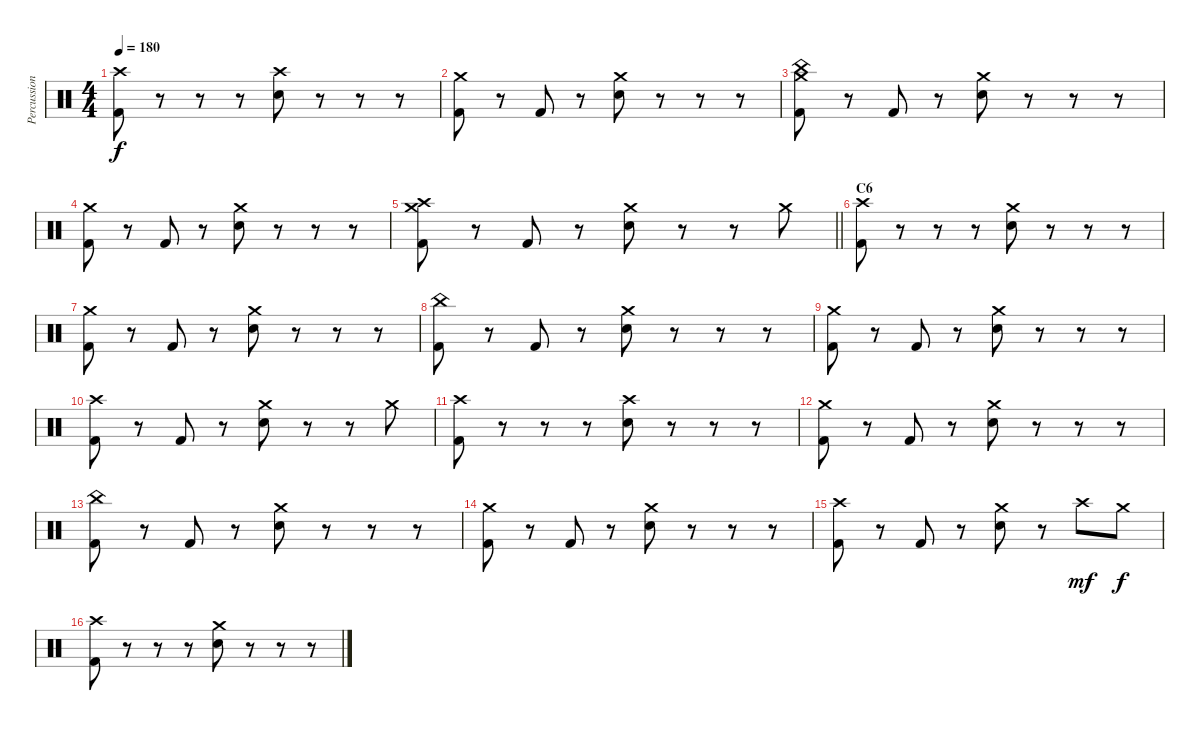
\track ("Percussion" "Percussion") {instrument percussion}
\staff {score}
\articulation defaults
\ts (4 4)
\tempo 180
\clef neutral
\ks c
("Crash high (hit)" "Kick (hit) 2").8{dy f} r.8 r.8 r.8 ("Crash high (hit)" "Snare (hit) 2").8 r.8 r.8 r.8 |
("Crash medium (hit)" "Kick (hit) 2").8 r.8 "Kick (hit) 2".8 r.8 ("Crash medium (hit)" "Snare (hit) 2").8 r.8 r.8 r.8 |
("Crash medium (hit)" "China (hit)" "Kick (hit) 2").8 r.8 "Kick (hit) 2".8 r.8 ("Crash medium (hit)" "Snare (hit) 2").8 r.8 r.8 r.8 |
("Crash medium (hit)" "Kick (hit) 2").8 r.8 "Kick (hit) 2".8 r.8 ("Crash medium (hit)" "Snare (hit) 2").8 r.8 r.8 r.8 |
\barLineRight lightlight
("Crash medium (hit)" "Crash high (hit)" "Kick (hit) 2").8 r.8 "Kick (hit) 2".8 r.8 ("Crash medium (hit)" "Snare (hit) 2").8 r.8 r.8 "Crash medium (hit)".8 |
\section ("" "C6")
("Crash high (hit)" "Kick (hit) 2").8 r.8 r.8 r.8 ("Crash medium (hit)" "Snare (hit) 2").8 r.8 r.8 r.8 |
("Crash medium (hit)" "Kick (hit) 2").8 r.8 "Kick (hit) 2".8 r.8 ("Crash medium (hit)" "Snare (hit) 2").8 r.8 r.8 r.8 |
("China (hit)" "Kick (hit) 2").8 r.8 "Kick (hit) 2".8 r.8 ("Crash medium (hit)" "Snare (hit) 2").8 r.8 r.8 r.8 |
("Crash medium (hit)" "Kick (hit) 2").8 r.8 "Kick (hit) 2".8 r.8 ("Crash medium (hit)" "Snare (hit) 2").8 r.8 r.8 r.8 |
("Crash high (hit)" "Kick (hit) 2").8 r.8 "Kick (hit) 2".8 r.8 ("Crash medium (hit)" "Snare (hit) 2").8 r.8 r.8 "Crash medium (hit)".8 |
("Crash high (hit)" "Kick (hit) 2").8 r.8 r.8 r.8 ("Crash high (hit)" "Snare (hit) 2").8 r.8 r.8 r.8 |
("Crash medium (hit)" "Kick (hit) 2").8 r.8 "Kick (hit) 2".8 r.8 ("Crash medium (hit)" "Snare (hit) 2").8 r.8 r.8 r.8 |
("China (hit)" "Kick (hit) 2").8 r.8 "Kick (hit) 2".8 r.8 ("Crash medium (hit)" "Snare (hit) 2").8 r.8 r.8 r.8 |
("Crash medium (hit)" "Kick (hit) 2").8 r.8 "Kick (hit) 2".8 r.8 ("Crash medium (hit)" "Snare (hit) 2").8 r.8 r.8 r.8 |
("Crash high (hit)" "Kick (hit) 2").8 r.8 "Kick (hit) 2".8 r.8 ("Crash medium (hit)" "Snare (hit) 2").8 r.8 "Crash high (hit)".8{dy mf} "Crash medium (hit)".8{dy f} |
("Crash high (hit)" "Kick (hit) 2").8 r.8 r.8 r.8 ("Crash medium (hit)" "Snare (hit) 2").8 r.8 r.8 r.8
